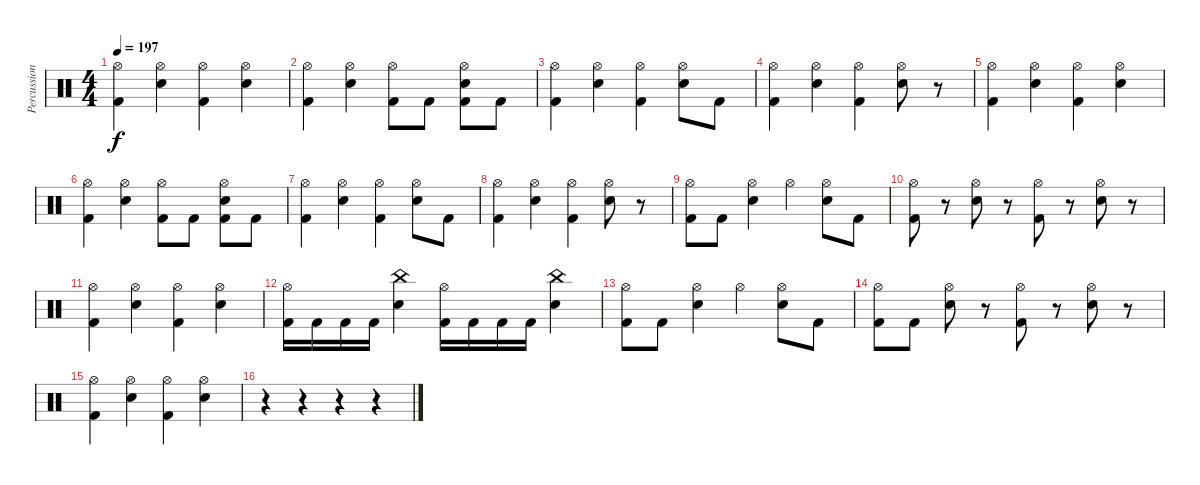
\track ("Percussion" "Percussion") {instrument percussion}
\staff {score}
\articulation defaults
\ts (4 4)
\tempo 197
\clef neutral
\ks c
("Hi-Hat (open)" "Kick (hit) 2").4{dy f} ("Hi-Hat (open)" "Electric Snare (hit)").4 ("Hi-Hat (open)" "Kick (hit) 2").4 ("Hi-Hat (open)" "Electric Snare (hit)").4 |
("Hi-Hat (open)" "Kick (hit) 2").4 ("Hi-Hat (open)" "Electric Snare (hit)").4 ("Hi-Hat (open)" "Kick (hit) 2").8 "Kick (hit) 2".8 ("Hi-Hat (open)" "Electric Snare (hit)" "Kick (hit) 2").8 "Kick (hit) 2".8 |
("Hi-Hat (open)" "Kick (hit) 2").4 ("Hi-Hat (open)" "Electric Snare (hit)").4 ("Hi-Hat (open)" "Kick (hit) 2").4 ("Hi-Hat (open)" "Electric Snare (hit)").8 "Kick (hit) 2".8 |
("Hi-Hat (open)" "Kick (hit) 2").4 ("Hi-Hat (open)" "Electric Snare (hit)").4 ("Hi-Hat (open)" "Kick (hit) 2").4 ("Hi-Hat (open)" "Electric Snare (hit)").8 r.8 |
("Hi-Hat (open)" "Kick (hit) 2").4 ("Hi-Hat (open)" "Electric Snare (hit)").4 ("Hi-Hat (open)" "Kick (hit) 2").4 ("Hi-Hat (open)" "Electric Snare (hit)").4 |
("Hi-Hat (open)" "Kick (hit) 2").4 ("Hi-Hat (open)" "Electric Snare (hit)").4 ("Hi-Hat (open)" "Kick (hit) 2").8 "Kick (hit) 2".8 ("Hi-Hat (open)" "Electric Snare (hit)" "Kick (hit) 2").8 "Kick (hit) 2".8 |
("Hi-Hat (open)" "Kick (hit) 2").4 ("Hi-Hat (open)" "Electric Snare (hit)").4 ("Hi-Hat (open)" "Kick (hit) 2").4 ("Hi-Hat (open)" "Electric Snare (hit)").8 "Kick (hit) 2".8 |
("Hi-Hat (open)" "Kick (hit) 2").4 ("Hi-Hat (open)" "Electric Snare (hit)").4 ("Hi-Hat (open)" "Kick (hit) 2").4 ("Hi-Hat (open)" "Electric Snare (hit)").8 r.8 |
("Hi-Hat (open)" "Kick (hit) 2").8 "Kick (hit) 2".8 ("Hi-Hat (open)" "Electric Snare (hit)").4 "Hi-Hat (open)".4 ("Hi-Hat (open)" "Electric Snare (hit)").8 "Kick (hit) 2".8 |
("Hi-Hat (open)" "Kick (hit) 2").8 r.8 ("Hi-Hat (open)" "Electric Snare (hit)").8 r.8 ("Hi-Hat (open)" "Kick (hit) 2").8 r.8 ("Hi-Hat (open)" "Electric Snare (hit)").8 r.8 |
("Hi-Hat (open)" "Kick (hit) 2").4 ("Hi-Hat (open)" "Electric Snare (hit)").4 ("Hi-Hat (open)" "Kick (hit) 2").4 ("Hi-Hat (open)" "Electric Snare (hit)").4 |
("Hi-Hat (open)" "Kick (hit) 2").16 "Kick (hit) 2".16 "Kick (hit) 2".16 "Kick (hit) 2".16 ("China (hit)" "Electric Snare (hit)").4 ("Hi-Hat (open)" "Kick (hit) 2").16 "Kick (hit) 2".16 "Kick (hit) 2".16 "Kick (hit) 2".16 ("China (hit)" "Electric Snare (hit)").4 |
("Hi-Hat (open)" "Kick (hit) 2").8 "Kick (hit) 2".8 ("Hi-Hat (open)" "Electric Snare (hit)").4 "Hi-Hat (open)".4 ("Hi-Hat (open)" "Electric Snare (hit)").8 "Kick (hit) 2".8 |
("Hi-Hat (open)" "Kick (hit) 2").8 "Kick (hit) 2".8 ("Hi-Hat (open)" "Electric Snare (hit)").8 r.8 ("Hi-Hat (open)" "Kick (hit) 2").8 r.8 ("Hi-Hat (open)" "Electric Snare (hit)").8 r.8 |
("Hi-Hat (open)" "Kick (hit) 2").4 ("Hi-Hat (open)" "Electric Snare (hit)").4 ("Hi-Hat (open)" "Kick (hit) 2").4 ("Hi-Hat (open)" "Electric Snare (hit)").4 |
r.4 r.4 r.4 r.4
